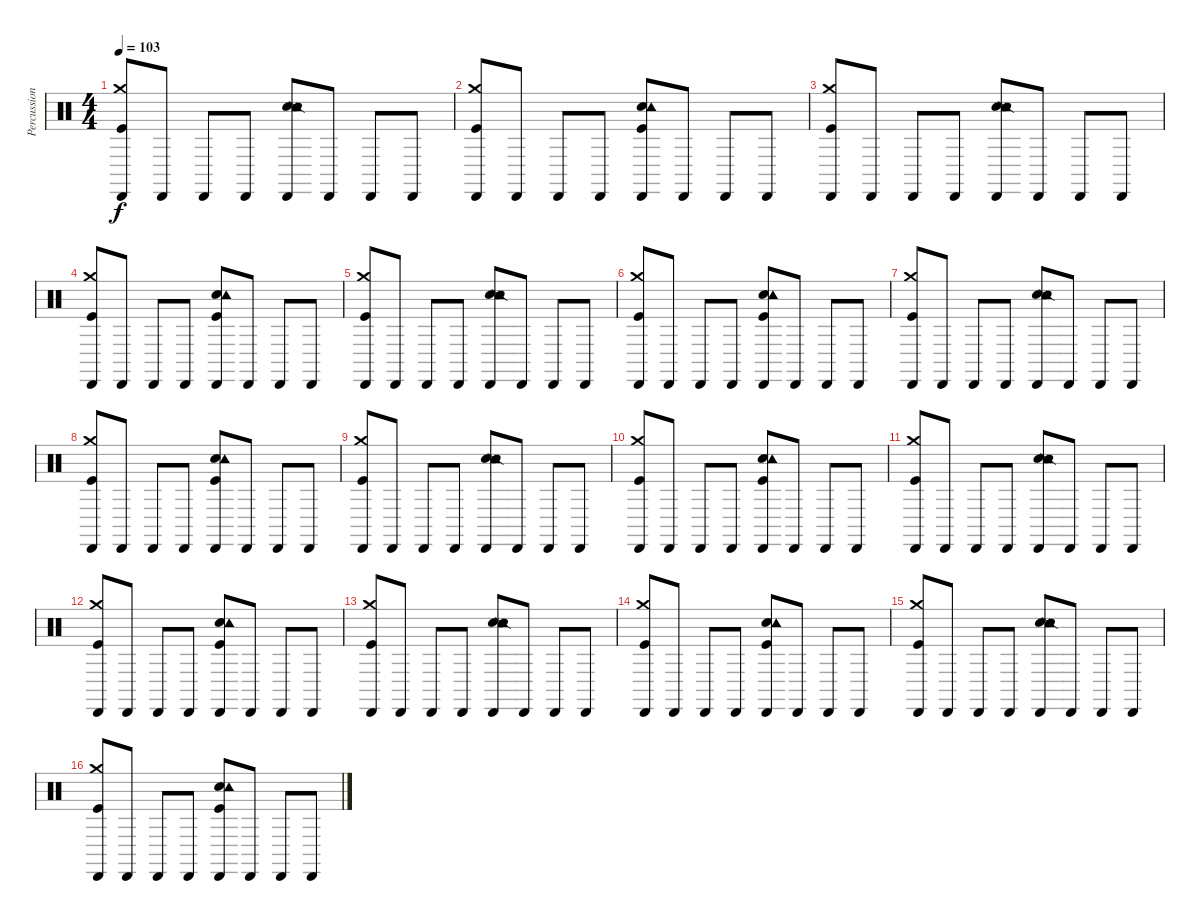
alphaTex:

\track ("Percussion" "Percussion") {instrument percussion}
\staff {score}
\articulation defaults
\ts (4 4)
\tempo 103
\clef neutral
\ks c
("Cabasa (hit)" "Kick (hit)" "Crash medium (hit)").8{dy f} "Cabasa (hit)".8 "Cabasa (hit)".8 "Cabasa (hit)".8 ("Cabasa (hit)" "Hand Clap (hit)" "Snare (side stick) 2" "Tambourine (hit)").8 "Cabasa (hit)".8 "Cabasa (hit)".8 "Cabasa (hit)".8 |
("Cabasa (hit)" "Kick (hit)" "Crash medium (hit)").8 "Cabasa (hit)".8 "Cabasa (hit)".8 "Cabasa (hit)".8 ("Cabasa (hit)" "Hand Clap (hit)" "Kick (hit)" "Tambourine (hit)").8 "Cabasa (hit)".8 "Cabasa (hit)".8 "Cabasa (hit)".8 |
("Cabasa (hit)" "Kick (hit)" "Crash medium (hit)").8 "Cabasa (hit)".8 "Cabasa (hit)".8 "Cabasa (hit)".8 ("Cabasa (hit)" "Hand Clap (hit)" "Snare (side stick) 2" "Tambourine (hit)").8 "Cabasa (hit)".8 "Cabasa (hit)".8 "Cabasa (hit)".8 |
("Cabasa (hit)" "Kick (hit)" "Crash medium (hit)").8 "Cabasa (hit)".8 "Cabasa (hit)".8 "Cabasa (hit)".8 ("Cabasa (hit)" "Hand Clap (hit)" "Kick (hit)" "Tambourine (hit)").8 "Cabasa (hit)".8 "Cabasa (hit)".8 "Cabasa (hit)".8 |
("Cabasa (hit)" "Kick (hit)" "Crash medium (hit)").8 "Cabasa (hit)".8 "Cabasa (hit)".8 "Cabasa (hit)".8 ("Cabasa (hit)" "Hand Clap (hit)" "Snare (side stick) 2" "Tambourine (hit)").8 "Cabasa (hit)".8 "Cabasa (hit)".8 "Cabasa (hit)".8 |
("Cabasa (hit)" "Kick (hit)" "Crash medium (hit)").8 "Cabasa (hit)".8 "Cabasa (hit)".8 "Cabasa (hit)".8 ("Cabasa (hit)" "Hand Clap (hit)" "Kick (hit)" "Tambourine (hit)").8 "Cabasa (hit)".8 "Cabasa (hit)".8 "Cabasa (hit)".8 |
("Cabasa (hit)" "Kick (hit)" "Crash medium (hit)").8 "Cabasa (hit)".8 "Cabasa (hit)".8 "Cabasa (hit)".8 ("Cabasa (hit)" "Hand Clap (hit)" "Snare (side stick) 2" "Tambourine (hit)").8 "Cabasa (hit)".8 "Cabasa (hit)".8 "Cabasa (hit)".8 |
("Cabasa (hit)" "Kick (hit)" "Crash medium (hit)").8 "Cabasa (hit)".8 "Cabasa (hit)".8 "Cabasa (hit)".8 ("Cabasa (hit)" "Hand Clap (hit)" "Kick (hit)" "Tambourine (hit)").8 "Cabasa (hit)".8 "Cabasa (hit)".8 "Cabasa (hit)".8 |
("Cabasa (hit)" "Kick (hit)" "Crash medium (hit)").8 "Cabasa (hit)".8 "Cabasa (hit)".8 "Cabasa (hit)".8 ("Cabasa (hit)" "Hand Clap (hit)" "Snare (side stick) 2" "Tambourine (hit)").8 "Cabasa (hit)".8 "Cabasa (hit)".8 "Cabasa (hit)".8 |
("Cabasa (hit)" "Kick (hit)" "Crash medium (hit)").8 "Cabasa (hit)".8 "Cabasa (hit)".8 "Cabasa (hit)".8 ("Cabasa (hit)" "Hand Clap (hit)" "Kick (hit)" "Tambourine (hit)").8 "Cabasa (hit)".8 "Cabasa (hit)".8 "Cabasa (hit)".8 |
("Cabasa (hit)" "Kick (hit)" "Crash medium (hit)").8 "Cabasa (hit)".8 "Cabasa (hit)".8 "Cabasa (hit)".8 ("Cabasa (hit)" "Hand Clap (hit)" "Snare (side stick) 2" "Tambourine (hit)").8 "Cabasa (hit)".8 "Cabasa (hit)".8 "Cabasa (hit)".8 |
("Cabasa (hit)" "Kick (hit)" "Crash medium (hit)").8 "Cabasa (hit)".8 "Cabasa (hit)".8 "Cabasa (hit)".8 ("Cabasa (hit)" "Hand Clap (hit)" "Kick (hit)" "Tambourine (hit)").8 "Cabasa (hit)".8 "Cabasa (hit)".8 "Cabasa (hit)".8 |
("Cabasa (hit)" "Kick (hit)" "Crash medium (hit)").8 "Cabasa (hit)".8 "Cabasa (hit)".8 "Cabasa (hit)".8 ("Cabasa (hit)" "Hand Clap (hit)" "Snare (side stick) 2" "Tambourine (hit)").8 "Cabasa (hit)".8 "Cabasa (hit)".8 "Cabasa (hit)".8 |
("Cabasa (hit)" "Kick (hit)" "Crash medium (hit)").8 "Cabasa (hit)".8 "Cabasa (hit)".8 "Cabasa (hit)".8 ("Cabasa (hit)" "Hand Clap (hit)" "Kick (hit)" "Tambourine (hit)").8 "Cabasa (hit)".8 "Cabasa (hit)".8 "Cabasa (hit)".8 |
("Cabasa (hit)" "Kick (hit)" "Crash medium (hit)").8 "Cabasa (hit)".8 "Cabasa (hit)".8 "Cabasa (hit)".8 ("Cabasa (hit)" "Hand Clap (hit)" "Snare (side stick) 2" "Tambourine (hit)").8 "Cabasa (hit)".8 "Cabasa (hit)".8 "Cabasa (hit)".8 |
("Cabasa (hit)" "Kick (hit)" "Crash medium (hit)").8 "Cabasa (hit)".8 "Cabasa (hit)".8 "Cabasa (hit)".8 ("Cabasa (hit)" "Hand Clap (hit)" "Kick (hit)" "Tambourine (hit)").8 "Cabasa (hit)".8 "Cabasa (hit)".8 "Cabasa (hit)".8
